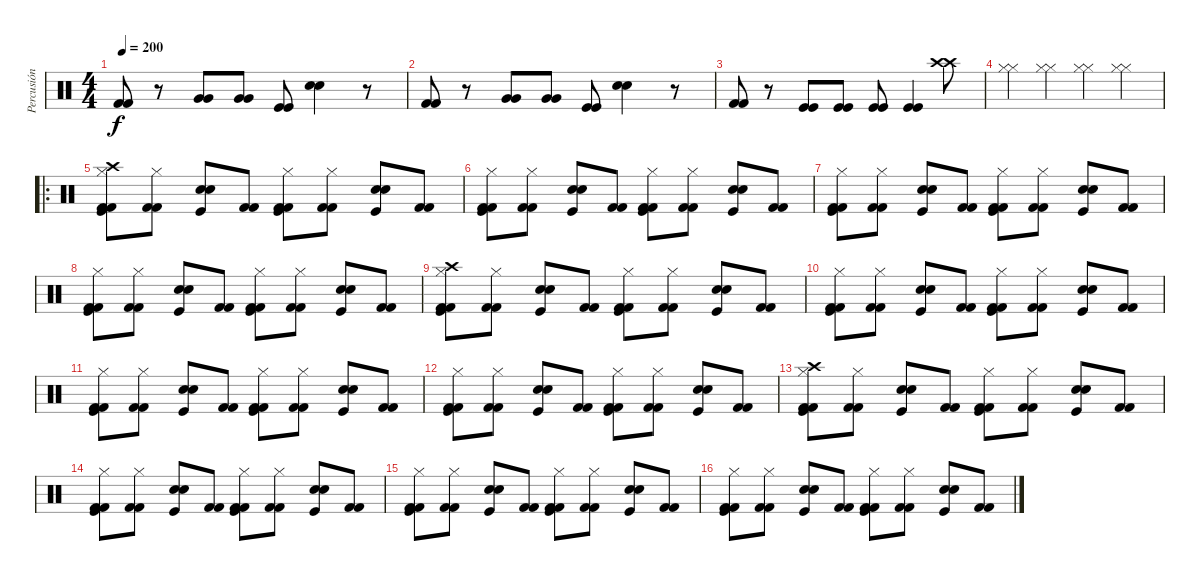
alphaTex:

\track ("Percusión" "Percusión") {instrument percussion}
\staff {score}
\articulation defaults
\ts (4 4)
\tempo 200
\clef neutral
\ks c
("Kick (hit) 2" "Kick (hit) 2").8{dy f} r.8 ("Very Low Tom (hit)" "Very Low Tom (hit)").8 ("Very Low Tom (hit)" "Very Low Tom (hit)").8 ("Kick (hit)" "Kick (hit)").8 ("Electric Snare (hit)" "Electric Snare (hit)").4 r.8 |
("Kick (hit) 2" "Kick (hit) 2").8 r.8 ("Very Low Tom (hit)" "Very Low Tom (hit)").8 ("Very Low Tom (hit)" "Very Low Tom (hit)").8 ("Kick (hit)" "Kick (hit)").8 ("Electric Snare (hit)" "Electric Snare (hit)").4 r.8 |
("Kick (hit) 2" "Kick (hit) 2").8 r.8 ("Kick (hit)" "Kick (hit)").8 ("Kick (hit)" "Kick (hit)").8 ("Kick (hit)" "Kick (hit)").8 ("Kick (hit)" "Kick (hit)").4 ("Crash high (hit)" "Crash high (hit)").8 |
("Hi-Hat (closed)" "Hi-Hat (closed)").4 ("Hi-Hat (closed)" "Hi-Hat (closed)").4 ("Hi-Hat (closed)" "Hi-Hat (closed)").4 ("Hi-Hat (closed)" "Hi-Hat (closed)").4 |
\ro
\section ("" "")
("Kick (hit) 2" "Kick (hit) 2" "Hi-Hat (closed)" "Kick (hit)" "Crash high (hit)").8 ("Kick (hit) 2" "Kick (hit) 2" "Hi-Hat (closed)").8 ("Electric Snare (hit)" "Electric Snare (hit)" "Kick (hit)").8 ("Kick (hit) 2" "Kick (hit) 2").8 ("Kick (hit) 2" "Kick (hit) 2" "Hi-Hat (closed)" "Kick (hit)").8 ("Kick (hit) 2" "Kick (hit) 2" "Hi-Hat (closed)").8 ("Electric Snare (hit)" "Electric Snare (hit)" "Kick (hit)").8 ("Kick (hit) 2" "Kick (hit) 2").8 |
("Kick (hit) 2" "Kick (hit) 2" "Hi-Hat (closed)" "Kick (hit)").8 ("Kick (hit) 2" "Kick (hit) 2" "Hi-Hat (closed)").8 ("Electric Snare (hit)" "Electric Snare (hit)" "Kick (hit)").8 ("Kick (hit) 2" "Kick (hit) 2").8 ("Kick (hit) 2" "Kick (hit) 2" "Hi-Hat (closed)" "Kick (hit)").8 ("Kick (hit) 2" "Kick (hit) 2" "Hi-Hat (closed)").8 ("Electric Snare (hit)" "Electric Snare (hit)" "Kick (hit)").8 ("Kick (hit) 2" "Kick (hit) 2").8 |
("Kick (hit) 2" "Kick (hit) 2" "Hi-Hat (closed)" "Kick (hit)").8 ("Kick (hit) 2" "Kick (hit) 2" "Hi-Hat (closed)").8 ("Electric Snare (hit)" "Electric Snare (hit)" "Kick (hit)").8 ("Kick (hit) 2" "Kick (hit) 2").8 ("Kick (hit) 2" "Kick (hit) 2" "Hi-Hat (closed)" "Kick (hit)").8 ("Kick (hit) 2" "Kick (hit) 2" "Hi-Hat (closed)").8 ("Electric Snare (hit)" "Electric Snare (hit)" "Kick (hit)").8 ("Kick (hit) 2" "Kick (hit) 2").8 |
("Kick (hit) 2" "Kick (hit) 2" "Hi-Hat (closed)" "Kick (hit)").8 ("Kick (hit) 2" "Kick (hit) 2" "Hi-Hat (closed)").8 ("Electric Snare (hit)" "Electric Snare (hit)" "Kick (hit)").8 ("Kick (hit) 2" "Kick (hit) 2").8 ("Kick (hit) 2" "Kick (hit) 2" "Hi-Hat (closed)" "Kick (hit)").8 ("Kick (hit) 2" "Kick (hit) 2" "Hi-Hat (closed)").8 ("Electric Snare (hit)" "Electric Snare (hit)" "Kick (hit)").8 ("Kick (hit) 2" "Kick (hit) 2").8 |
("Kick (hit) 2" "Kick (hit) 2" "Hi-Hat (closed)" "Kick (hit)" "Crash high (hit)").8 ("Kick (hit) 2" "Kick (hit) 2" "Hi-Hat (closed)").8 ("Electric Snare (hit)" "Electric Snare (hit)" "Kick (hit)").8 ("Kick (hit) 2" "Kick (hit) 2").8 ("Kick (hit) 2" "Kick (hit) 2" "Hi-Hat (closed)" "Kick (hit)").8 ("Kick (hit) 2" "Kick (hit) 2" "Hi-Hat (closed)").8 ("Electric Snare (hit)" "Electric Snare (hit)" "Kick (hit)").8 ("Kick (hit) 2" "Kick (hit) 2").8 |
("Kick (hit) 2" "Kick (hit) 2" "Hi-Hat (closed)" "Kick (hit)").8 ("Kick (hit) 2" "Kick (hit) 2" "Hi-Hat (closed)").8 ("Electric Snare (hit)" "Electric Snare (hit)" "Kick (hit)").8 ("Kick (hit) 2" "Kick (hit) 2").8 ("Kick (hit) 2" "Kick (hit) 2" "Hi-Hat (closed)" "Kick (hit)").8 ("Kick (hit) 2" "Kick (hit) 2" "Hi-Hat (closed)").8 ("Electric Snare (hit)" "Electric Snare (hit)" "Kick (hit)").8 ("Kick (hit) 2" "Kick (hit) 2").8 |
("Kick (hit) 2" "Kick (hit) 2" "Hi-Hat (closed)" "Kick (hit)").8 ("Kick (hit) 2" "Kick (hit) 2" "Hi-Hat (closed)").8 ("Electric Snare (hit)" "Electric Snare (hit)" "Kick (hit)").8 ("Kick (hit) 2" "Kick (hit) 2").8 ("Kick (hit) 2" "Kick (hit) 2" "Hi-Hat (closed)" "Kick (hit)").8 ("Kick (hit) 2" "Kick (hit) 2" "Hi-Hat (closed)").8 ("Electric Snare (hit)" "Electric Snare (hit)" "Kick (hit)").8 ("Kick (hit) 2" "Kick (hit) 2").8 |
("Kick (hit) 2" "Kick (hit) 2" "Hi-Hat (closed)" "Kick (hit)").8 ("Kick (hit) 2" "Kick (hit) 2" "Hi-Hat (closed)").8 ("Electric Snare (hit)" "Electric Snare (hit)" "Kick (hit)").8 ("Kick (hit) 2" "Kick (hit) 2").8 ("Kick (hit) 2" "Kick (hit) 2" "Hi-Hat (closed)" "Kick (hit)").8 ("Kick (hit) 2" "Kick (hit) 2" "Hi-Hat (closed)").8 ("Electric Snare (hit)" "Electric Snare (hit)" "Kick (hit)").8 ("Kick (hit) 2" "Kick (hit) 2").8 |
("Kick (hit) 2" "Kick (hit) 2" "Hi-Hat (closed)" "Kick (hit)" "Crash high (hit)").8 ("Kick (hit) 2" "Kick (hit) 2" "Hi-Hat (closed)").8 ("Electric Snare (hit)" "Electric Snare (hit)" "Kick (hit)").8 ("Kick (hit) 2" "Kick (hit) 2").8 ("Kick (hit) 2" "Kick (hit) 2" "Hi-Hat (closed)" "Kick (hit)").8 ("Kick (hit) 2" "Kick (hit) 2" "Hi-Hat (closed)").8 ("Electric Snare (hit)" "Electric Snare (hit)" "Kick (hit)").8 ("Kick (hit) 2" "Kick (hit) 2").8 |
("Kick (hit) 2" "Kick (hit) 2" "Hi-Hat (closed)" "Kick (hit)").8 ("Kick (hit) 2" "Kick (hit) 2" "Hi-Hat (closed)").8 ("Electric Snare (hit)" "Electric Snare (hit)" "Kick (hit)").8 ("Kick (hit) 2" "Kick (hit) 2").8 ("Kick (hit) 2" "Kick (hit) 2" "Hi-Hat (closed)" "Kick (hit)").8 ("Kick (hit) 2" "Kick (hit) 2" "Hi-Hat (closed)").8 ("Electric Snare (hit)" "Electric Snare (hit)" "Kick (hit)").8 ("Kick (hit) 2" "Kick (hit) 2").8 |
("Kick (hit) 2" "Kick (hit) 2" "Hi-Hat (closed)" "Kick (hit)").8 ("Kick (hit) 2" "Kick (hit) 2" "Hi-Hat (closed)").8 ("Electric Snare (hit)" "Electric Snare (hit)" "Kick (hit)").8 ("Kick (hit) 2" "Kick (hit) 2").8 ("Kick (hit) 2" "Kick (hit) 2" "Hi-Hat (closed)" "Kick (hit)").8 ("Kick (hit) 2" "Kick (hit) 2" "Hi-Hat (closed)").8 ("Electric Snare (hit)" "Electric Snare (hit)" "Kick (hit)").8 ("Kick (hit) 2" "Kick (hit) 2").8 |
("Kick (hit) 2" "Kick (hit) 2" "Hi-Hat (closed)" "Kick (hit)").8 ("Kick (hit) 2" "Kick (hit) 2" "Hi-Hat (closed)").8 ("Electric Snare (hit)" "Electric Snare (hit)" "Kick (hit)").8 ("Kick (hit) 2" "Kick (hit) 2").8 ("Kick (hit) 2" "Kick (hit) 2" "Hi-Hat (closed)" "Kick (hit)").8 ("Kick (hit) 2" "Kick (hit) 2" "Hi-Hat (closed)").8 ("Electric Snare (hit)" "Electric Snare (hit)" "Kick (hit)").8 ("Kick (hit) 2" "Kick (hit) 2").8
